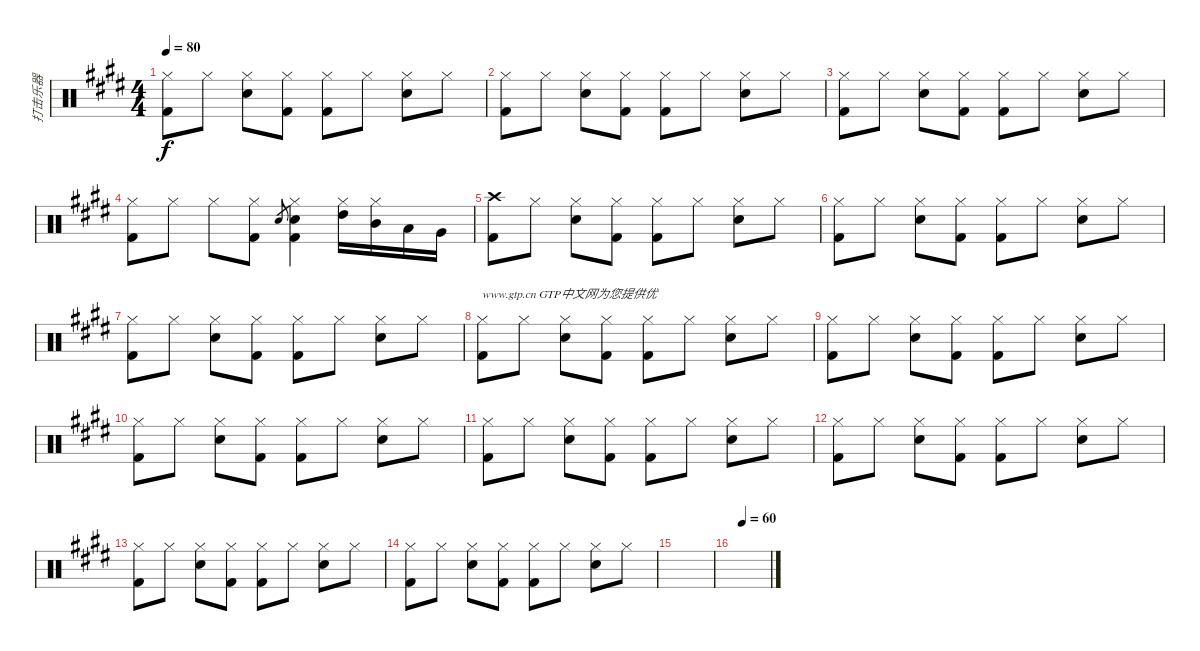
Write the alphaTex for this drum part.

\track ("打击乐器" "打击乐器") {instrument percussion}
\staff {score}
\articulation defaults
\ts (4 4)
\tempo 80
\clef neutral
\ks c#minor
("Hi-Hat (closed)" "Kick (hit) 2").8{dy f} "Hi-Hat (closed)".8 ("Hi-Hat (closed)" "Snare (hit) 2").8 ("Hi-Hat (closed)" "Kick (hit) 2").8 ("Hi-Hat (closed)" "Kick (hit) 2").8 "Hi-Hat (closed)".8 ("Hi-Hat (closed)" "Snare (hit) 2").8 "Hi-Hat (closed)".8 |
("Hi-Hat (closed)" "Kick (hit) 2").8 "Hi-Hat (closed)".8 ("Hi-Hat (closed)" "Snare (hit) 2").8 ("Hi-Hat (closed)" "Kick (hit) 2").8 ("Hi-Hat (closed)" "Kick (hit) 2").8 "Hi-Hat (closed)".8 ("Hi-Hat (closed)" "Snare (hit) 2").8 "Hi-Hat (closed)".8 |
("Hi-Hat (closed)" "Kick (hit) 2").8 "Hi-Hat (closed)".8 ("Hi-Hat (closed)" "Snare (hit) 2").8 ("Hi-Hat (closed)" "Kick (hit) 2").8 ("Hi-Hat (closed)" "Kick (hit) 2").8 "Hi-Hat (closed)".8 ("Hi-Hat (closed)" "Snare (hit) 2").8 "Hi-Hat (closed)".8 |
("Hi-Hat (closed)" "Kick (hit) 2").8 "Hi-Hat (closed)".8 "Hi-Hat (closed)".8 ("Hi-Hat (closed)" "Kick (hit) 2").8 "Snare (hit) 2".8{gr} ("Hi-Hat (closed)" "Snare (hit) 2" "Kick (hit) 2").4 ("Hi-Hat (closed)" "High Tom (hit)").16 ("Hi-Hat (closed)" "Mid Tom (hit)").16 "Low Tom (hit)".16 "Very Low Tom (hit)".16 |
("Crash high (hit)" "Kick (hit) 2").8 "Hi-Hat (closed)".8 ("Hi-Hat (closed)" "Snare (hit) 2").8 ("Hi-Hat (closed)" "Kick (hit) 2").8 ("Hi-Hat (closed)" "Kick (hit) 2").8 "Hi-Hat (closed)".8 ("Hi-Hat (closed)" "Snare (hit) 2").8 "Hi-Hat (closed)".8 |
("Hi-Hat (closed)" "Kick (hit) 2").8 "Hi-Hat (closed)".8 ("Hi-Hat (closed)" "Snare (hit) 2").8 ("Hi-Hat (closed)" "Kick (hit) 2").8 ("Hi-Hat (closed)" "Kick (hit) 2").8 "Hi-Hat (closed)".8 ("Hi-Hat (closed)" "Snare (hit) 2").8 "Hi-Hat (closed)".8 |
("Hi-Hat (closed)" "Kick (hit) 2").8 "Hi-Hat (closed)".8 ("Hi-Hat (closed)" "Snare (hit) 2").8 ("Hi-Hat (closed)" "Kick (hit) 2").8 ("Hi-Hat (closed)" "Kick (hit) 2").8 "Hi-Hat (closed)".8 ("Hi-Hat (closed)" "Snare (hit) 2").8 "Hi-Hat (closed)".8{txt "                    www.gtp.cn GTP中文网为您提供优"} |
("Hi-Hat (closed)" "Kick (hit) 2").8 "Hi-Hat (closed)".8 ("Hi-Hat (closed)" "Snare (hit) 2").8 ("Hi-Hat (closed)" "Kick (hit) 2").8 ("Hi-Hat (closed)" "Kick (hit) 2").8 "Hi-Hat (closed)".8 ("Hi-Hat (closed)" "Snare (hit) 2").8 "Hi-Hat (closed)".8 |
("Hi-Hat (closed)" "Kick (hit) 2").8 "Hi-Hat (closed)".8 ("Hi-Hat (closed)" "Snare (hit) 2").8 ("Hi-Hat (closed)" "Kick (hit) 2").8 ("Hi-Hat (closed)" "Kick (hit) 2").8 "Hi-Hat (closed)".8 ("Hi-Hat (closed)" "Snare (hit) 2").8 "Hi-Hat (closed)".8 |
("Hi-Hat (closed)" "Kick (hit) 2").8 "Hi-Hat (closed)".8 ("Hi-Hat (closed)" "Snare (hit) 2").8 ("Hi-Hat (closed)" "Kick (hit) 2").8 ("Hi-Hat (closed)" "Kick (hit) 2").8 "Hi-Hat (closed)".8 ("Hi-Hat (closed)" "Snare (hit) 2").8 "Hi-Hat (closed)".8 |
("Hi-Hat (closed)" "Kick (hit) 2").8 "Hi-Hat (closed)".8 ("Hi-Hat (closed)" "Snare (hit) 2").8 ("Hi-Hat (closed)" "Kick (hit) 2").8 ("Hi-Hat (closed)" "Kick (hit) 2").8 "Hi-Hat (closed)".8 ("Hi-Hat (closed)" "Snare (hit) 2").8 "Hi-Hat (closed)".8 |
("Hi-Hat (closed)" "Kick (hit) 2").8 "Hi-Hat (closed)".8 ("Hi-Hat (closed)" "Snare (hit) 2").8 ("Hi-Hat (closed)" "Kick (hit) 2").8 ("Hi-Hat (closed)" "Kick (hit) 2").8 "Hi-Hat (closed)".8 ("Hi-Hat (closed)" "Snare (hit) 2").8 "Hi-Hat (closed)".8 |
("Hi-Hat (closed)" "Kick (hit) 2").8 "Hi-Hat (closed)".8 ("Hi-Hat (closed)" "Snare (hit) 2").8 ("Hi-Hat (closed)" "Kick (hit) 2").8 ("Hi-Hat (closed)" "Kick (hit) 2").8 "Hi-Hat (closed)".8 ("Hi-Hat (closed)" "Snare (hit) 2").8 "Hi-Hat (closed)".8 |
("Hi-Hat (closed)" "Kick (hit) 2").8 "Hi-Hat (closed)".8 ("Hi-Hat (closed)" "Snare (hit) 2").8 ("Hi-Hat (closed)" "Kick (hit) 2").8 ("Hi-Hat (closed)" "Kick (hit) 2").8 "Hi-Hat (closed)".8 ("Hi-Hat (closed)" "Snare (hit) 2").8 "Hi-Hat (closed)".8 |
|
\tempo (60 0.25)
